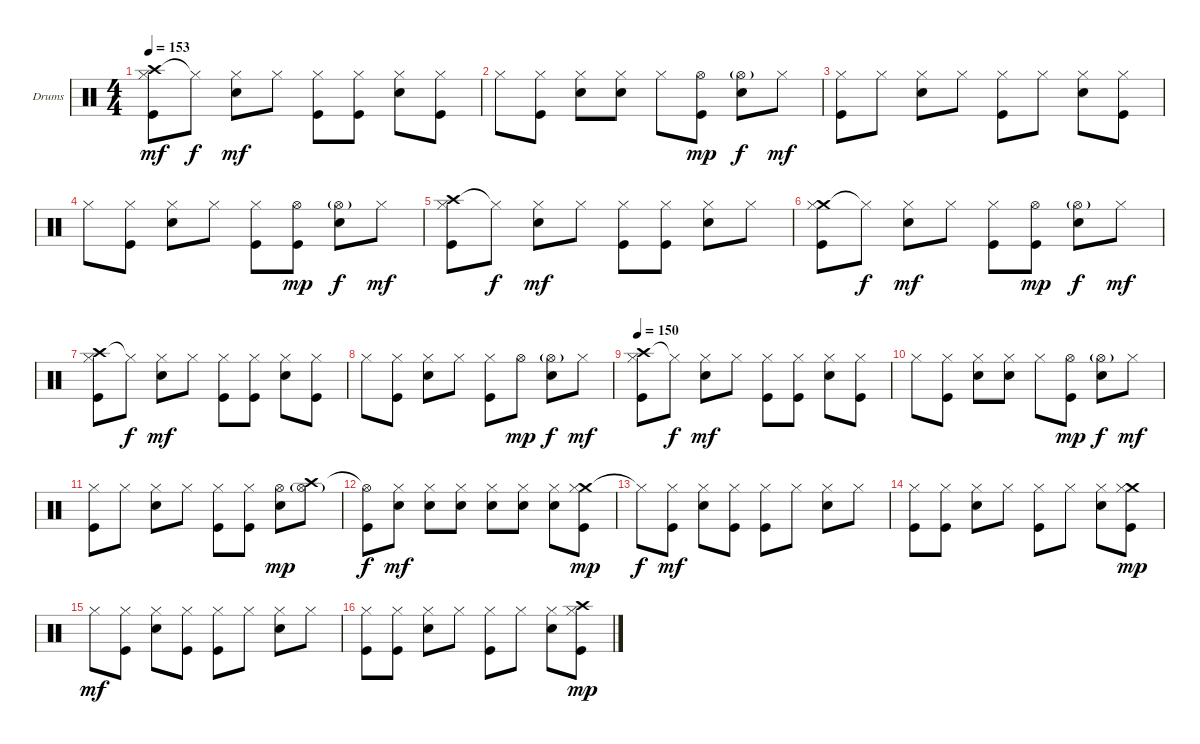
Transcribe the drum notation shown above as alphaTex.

\bracketExtendMode groupsimilarinstruments
\firstSystemTrackNameOrientation horizontal
\otherSystemsTrackNameOrientation horizontal
\track ("Drumkit" "Drums") {instrument percussion}
\staff {score}
\articulation defaults
\ts (4 4)
\tempo 153
\clef neutral
\ks c
("Crash high (hit)" "Hi-Hat (closed)" "Kick (hit)").8{dy mf} "Hi-Hat (closed)"{t}.8{dy f} ("Hi-Hat (closed)" "Snare (hit) 2").8{dy mf} "Hi-Hat (closed)".8 ("Hi-Hat (closed)" "Kick (hit)").8 ("Hi-Hat (closed)" "Kick (hit)").8 ("Hi-Hat (closed)" "Snare (hit) 2").8 ("Hi-Hat (closed)" "Kick (hit)").8 |
"Hi-Hat (closed)".8 ("Hi-Hat (closed)" "Kick (hit)").8 ("Hi-Hat (closed)" "Snare (hit) 2").8 ("Hi-Hat (closed)" "Snare (hit) 2").8 "Hi-Hat (closed)".8 ("Hi-Hat (open)" "Kick (hit)").8{dy mp} ("Hi-Hat (open)"{g} "Snare (hit) 2").8{dy f} "Hi-Hat (closed)".8{dy mf} |
("Hi-Hat (closed)" "Kick (hit)").8 "Hi-Hat (closed)".8 ("Hi-Hat (closed)" "Snare (hit) 2").8 "Hi-Hat (closed)".8 ("Hi-Hat (closed)" "Kick (hit)").8 "Hi-Hat (closed)".8 ("Hi-Hat (closed)" "Snare (hit) 2").8 ("Hi-Hat (closed)" "Kick (hit)").8 |
"Hi-Hat (closed)".8 ("Hi-Hat (closed)" "Kick (hit)").8 ("Hi-Hat (closed)" "Snare (hit) 2").8 "Hi-Hat (closed)".8 ("Hi-Hat (closed)" "Kick (hit)").8 ("Hi-Hat (open)" "Kick (hit)").8{dy mp} ("Hi-Hat (open)"{g} "Snare (hit) 2").8{dy f} "Hi-Hat (closed)".8{dy mf} |
("Crash high (hit)" "Hi-Hat (closed)" "Kick (hit)").8 "Hi-Hat (closed)"{t}.8{dy f} ("Hi-Hat (closed)" "Snare (hit) 2").8{dy mf} "Hi-Hat (closed)".8 ("Hi-Hat (closed)" "Kick (hit)").8 ("Hi-Hat (closed)" "Kick (hit)").8 ("Hi-Hat (closed)" "Snare (hit) 2").8 "Hi-Hat (closed)".8 |
("Crash medium (hit)" "Hi-Hat (closed)" "Kick (hit)").8 "Hi-Hat (closed)"{t}.8{dy f} ("Hi-Hat (closed)" "Snare (hit) 2").8{dy mf} "Hi-Hat (closed)".8 ("Hi-Hat (closed)" "Kick (hit)").8 ("Hi-Hat (open)" "Kick (hit)").8{dy mp} ("Hi-Hat (open)"{g} "Snare (hit) 2").8{dy f} "Hi-Hat (closed)".8{dy mf} |
("Crash high (hit)" "Hi-Hat (closed)" "Kick (hit)").8 "Hi-Hat (closed)"{t}.8{dy f} ("Hi-Hat (closed)" "Snare (hit) 2").8{dy mf} "Hi-Hat (closed)".8 ("Hi-Hat (closed)" "Kick (hit)").8 ("Hi-Hat (closed)" "Kick (hit)").8 ("Hi-Hat (closed)" "Snare (hit) 2").8 ("Hi-Hat (closed)" "Kick (hit)").8 |
"Hi-Hat (closed)".8 ("Hi-Hat (closed)" "Kick (hit)").8 ("Hi-Hat (closed)" "Snare (hit) 2").8 "Hi-Hat (closed)".8 ("Hi-Hat (closed)" "Kick (hit)").8 "Hi-Hat (open)".8{dy mp} ("Hi-Hat (open)"{g} "Snare (hit) 2").8{dy f} "Hi-Hat (closed)".8{dy mf} |
\tempo 150
("Crash high (hit)" "Hi-Hat (closed)" "Kick (hit)").8 "Hi-Hat (closed)"{t}.8{dy f} ("Hi-Hat (closed)" "Snare (hit) 2").8{dy mf} "Hi-Hat (closed)".8 ("Hi-Hat (closed)" "Kick (hit)").8 ("Hi-Hat (closed)" "Kick (hit)").8 ("Hi-Hat (closed)" "Snare (hit) 2").8 ("Hi-Hat (closed)" "Kick (hit)").8 |
"Hi-Hat (closed)".8 ("Hi-Hat (closed)" "Kick (hit)").8 ("Hi-Hat (closed)" "Snare (hit) 2").8 ("Hi-Hat (closed)" "Snare (hit) 2").8 "Hi-Hat (closed)".8 ("Hi-Hat (open)" "Kick (hit)").8{dy mp} ("Hi-Hat (open)"{g} "Snare (hit) 2").8{dy f} "Hi-Hat (closed)".8{dy mf} |
("Hi-Hat (closed)" "Kick (hit)").8 "Hi-Hat (closed)".8 ("Hi-Hat (closed)" "Snare (hit) 2").8 "Hi-Hat (closed)".8 ("Hi-Hat (closed)" "Kick (hit)").8 ("Hi-Hat (closed)" "Kick (hit)").8 ("Hi-Hat (open)" "Snare (hit) 2").8{dy mp} ("Crash high (hit)" "Hi-Hat (open)"{g}).8 |
("Hi-Hat (open)"{t} "Kick (hit)").8{dy f} ("Hi-Hat (closed)" "Snare (hit) 2").8{dy mf} ("Hi-Hat (closed)" "Snare (hit) 2").8 ("Hi-Hat (closed)" "Snare (hit) 2").8 ("Hi-Hat (closed)" "Snare (hit) 2").8 ("Hi-Hat (closed)" "Snare (hit) 2").8 ("Hi-Hat (closed)" "Snare (hit) 2").8 ("Crash medium (hit)" "Hi-Hat (closed)" "Kick (hit)").8{dy mp} |
"Hi-Hat (closed)"{t}.8{dy f} ("Hi-Hat (closed)" "Kick (hit)").8{dy mf} ("Hi-Hat (closed)" "Snare (hit) 2").8 ("Hi-Hat (closed)" "Kick (hit)").8 ("Hi-Hat (closed)" "Kick (hit)").8 "Hi-Hat (closed)".8 ("Hi-Hat (closed)" "Snare (hit) 2").8 "Hi-Hat (closed)".8 |
("Hi-Hat (closed)" "Kick (hit)").8 ("Hi-Hat (closed)" "Kick (hit)").8 ("Hi-Hat (closed)" "Snare (hit) 2").8 "Hi-Hat (closed)".8 ("Hi-Hat (closed)" "Kick (hit)").8 "Hi-Hat (closed)".8 ("Hi-Hat (closed)" "Snare (hit) 2").8 ("Crash medium (hit)" "Hi-Hat (closed)" "Kick (hit)").8{dy mp} |
"Hi-Hat (closed)".8{dy mf} ("Hi-Hat (closed)" "Kick (hit)").8 ("Hi-Hat (closed)" "Snare (hit) 2").8 ("Hi-Hat (closed)" "Kick (hit)").8 ("Hi-Hat (closed)" "Kick (hit)").8 "Hi-Hat (closed)".8 ("Hi-Hat (closed)" "Snare (hit) 2").8 "Hi-Hat (closed)".8 |
("Hi-Hat (closed)" "Kick (hit)").8 ("Hi-Hat (closed)" "Kick (hit)").8 ("Hi-Hat (closed)" "Snare (hit) 2").8 "Hi-Hat (closed)".8 ("Hi-Hat (closed)" "Kick (hit)").8 "Hi-Hat (closed)".8 ("Hi-Hat (closed)" "Snare (hit) 2").8 ("Crash high (hit)" "Hi-Hat (closed)" "Kick (hit)").8{dy mp}
